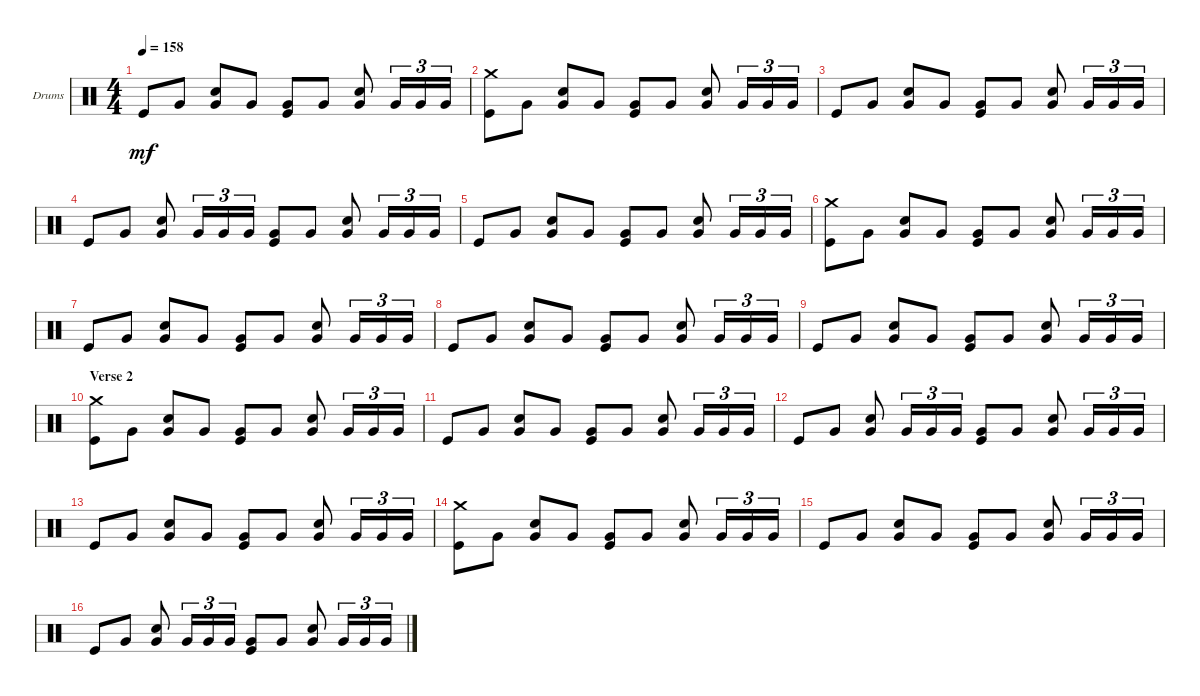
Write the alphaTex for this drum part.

\defaultSystemsLayout 4
\bracketExtendMode groupsimilarinstruments
\firstSystemTrackNameOrientation horizontal
\otherSystemsTrackNameOrientation horizontal
\track ("Drums" "Drums") {instrument percussion}
\staff {score}
\articulation defaults
\ts (4 4)
\tempo 158
\clef neutral
\ks c "Kick (hit)".8{dy mf} "Very Low Tom (hit)".8
("Very Low Tom (hit)" "Snare (hit) 2").8 "Very Low Tom (hit)".8 ("Very Low Tom (hit)" "Kick (hit)").8 "Very Low Tom (hit)".8 ("Very Low Tom (hit)" "Snare (hit) 2").8 "Very Low Tom (hit)".16{tu (3 2)} "Very Low Tom (hit)".16{tu (3 2)} "Very Low Tom (hit)".16{tu (3 2)} |
("Crash medium (hit)" "Kick (hit)").8 "Very Low Tom (hit)".8 ("Very Low Tom (hit)" "Snare (hit) 2").8 "Very Low Tom (hit)".8 ("Very Low Tom (hit)" "Kick (hit)").8 "Very Low Tom (hit)".8 ("Very Low Tom (hit)" "Snare (hit) 2").8 "Very Low Tom (hit)".16{tu (3 2)} "Very Low Tom (hit)".16{tu (3 2)} "Very Low Tom (hit)".16{tu (3 2)} |
"Kick (hit)".8 "Very Low Tom (hit)".8 ("Very Low Tom (hit)" "Snare (hit) 2").8 "Very Low Tom (hit)".8 ("Very Low Tom (hit)" "Kick (hit)").8 "Very Low Tom (hit)".8 ("Very Low Tom (hit)" "Snare (hit) 2").8 "Very Low Tom (hit)".16{tu (3 2)} "Very Low Tom (hit)".16{tu (3 2)} "Very Low Tom (hit)".16{tu (3 2)} |
"Kick (hit)".8 "Very Low Tom (hit)".8 ("Very Low Tom (hit)" "Snare (hit) 2").8 "Very Low Tom (hit)".16{tu (3 2)} "Very Low Tom (hit)".16{tu (3 2)} "Very Low Tom (hit)".16{tu (3 2)} ("Very Low Tom (hit)" "Kick (hit)").8 "Very Low Tom (hit)".8 ("Very Low Tom (hit)" "Snare (hit) 2").8 "Very Low Tom (hit)".16{tu (3 2)} "Very Low Tom (hit)".16{tu (3 2)} "Very Low Tom (hit)".16{tu (3 2)} |
"Kick (hit)".8 "Very Low Tom (hit)".8 ("Very Low Tom (hit)" "Snare (hit) 2").8 "Very Low Tom (hit)".8 ("Very Low Tom (hit)" "Kick (hit)").8 "Very Low Tom (hit)".8 ("Very Low Tom (hit)" "Snare (hit) 2").8 "Very Low Tom (hit)".16{tu (3 2)} "Very Low Tom (hit)".16{tu (3 2)} "Very Low Tom (hit)".16{tu (3 2)} |
("Crash medium (hit)" "Kick (hit)").8 "Very Low Tom (hit)".8 ("Very Low Tom (hit)" "Snare (hit) 2").8 "Very Low Tom (hit)".8 ("Very Low Tom (hit)" "Kick (hit)").8 "Very Low Tom (hit)".8 ("Very Low Tom (hit)" "Snare (hit) 2").8 "Very Low Tom (hit)".16{tu (3 2)} "Very Low Tom (hit)".16{tu (3 2)} "Very Low Tom (hit)".16{tu (3 2)} |
"Kick (hit)".8 "Very Low Tom (hit)".8 ("Very Low Tom (hit)" "Snare (hit) 2").8 "Very Low Tom (hit)".8 ("Very Low Tom (hit)" "Kick (hit)").8 "Very Low Tom (hit)".8 ("Very Low Tom (hit)" "Snare (hit) 2").8 "Very Low Tom (hit)".16{tu (3 2)} "Very Low Tom (hit)".16{tu (3 2)} "Very Low Tom (hit)".16{tu (3 2)} |
"Kick (hit)".8 "Very Low Tom (hit)".8 ("Very Low Tom (hit)" "Snare (hit) 2").8 "Very Low Tom (hit)".8 ("Very Low Tom (hit)" "Kick (hit)").8 "Very Low Tom (hit)".8 ("Very Low Tom (hit)" "Snare (hit) 2").8 "Very Low Tom (hit)".16{tu (3 2)} "Very Low Tom (hit)".16{tu (3 2)} "Very Low Tom (hit)".16{tu (3 2)} |
"Kick (hit)".8 "Very Low Tom (hit)".8 ("Very Low Tom (hit)" "Snare (hit) 2").8 "Very Low Tom (hit)".8 ("Very Low Tom (hit)" "Kick (hit)").8 "Very Low Tom (hit)".8 ("Very Low Tom (hit)" "Snare (hit) 2").8 "Very Low Tom (hit)".16{tu (3 2)} "Very Low Tom (hit)".16{tu (3 2)} "Very Low Tom (hit)".16{tu (3 2)} |
\section ("" "Verse 2")
("Crash medium (hit)" "Kick (hit)").8 "Very Low Tom (hit)".8 ("Very Low Tom (hit)" "Snare (hit) 2").8 "Very Low Tom (hit)".8 ("Very Low Tom (hit)" "Kick (hit)").8 "Very Low Tom (hit)".8 ("Very Low Tom (hit)" "Snare (hit) 2").8 "Very Low Tom (hit)".16{tu (3 2)} "Very Low Tom (hit)".16{tu (3 2)} "Very Low Tom (hit)".16{tu (3 2)} |
"Kick (hit)".8 "Very Low Tom (hit)".8 ("Very Low Tom (hit)" "Snare (hit) 2").8 "Very Low Tom (hit)".8 ("Very Low Tom (hit)" "Kick (hit)").8 "Very Low Tom (hit)".8 ("Very Low Tom (hit)" "Snare (hit) 2").8 "Very Low Tom (hit)".16{tu (3 2)} "Very Low Tom (hit)".16{tu (3 2)} "Very Low Tom (hit)".16{tu (3 2)} |
"Kick (hit)".8 "Very Low Tom (hit)".8 ("Very Low Tom (hit)" "Snare (hit) 2").8 "Very Low Tom (hit)".16{tu (3 2)} "Very Low Tom (hit)".16{tu (3 2)} "Very Low Tom (hit)".16{tu (3 2)} ("Very Low Tom (hit)" "Kick (hit)").8 "Very Low Tom (hit)".8 ("Very Low Tom (hit)" "Snare (hit) 2").8 "Very Low Tom (hit)".16{tu (3 2)} "Very Low Tom (hit)".16{tu (3 2)} "Very Low Tom (hit)".16{tu (3 2)} |
"Kick (hit)".8 "Very Low Tom (hit)".8 ("Very Low Tom (hit)" "Snare (hit) 2").8 "Very Low Tom (hit)".8 ("Very Low Tom (hit)" "Kick (hit)").8 "Very Low Tom (hit)".8 ("Very Low Tom (hit)" "Snare (hit) 2").8 "Very Low Tom (hit)".16{tu (3 2)} "Very Low Tom (hit)".16{tu (3 2)} "Very Low Tom (hit)".16{tu (3 2)} |
("Crash medium (hit)" "Kick (hit)").8 "Very Low Tom (hit)".8 ("Very Low Tom (hit)" "Snare (hit) 2").8 "Very Low Tom (hit)".8 ("Very Low Tom (hit)" "Kick (hit)").8 "Very Low Tom (hit)".8 ("Very Low Tom (hit)" "Snare (hit) 2").8 "Very Low Tom (hit)".16{tu (3 2)} "Very Low Tom (hit)".16{tu (3 2)} "Very Low Tom (hit)".16{tu (3 2)} |
"Kick (hit)".8 "Very Low Tom (hit)".8 ("Very Low Tom (hit)" "Snare (hit) 2").8 "Very Low Tom (hit)".8 ("Very Low Tom (hit)" "Kick (hit)").8 "Very Low Tom (hit)".8 ("Very Low Tom (hit)" "Snare (hit) 2").8 "Very Low Tom (hit)".16{tu (3 2)} "Very Low Tom (hit)".16{tu (3 2)} "Very Low Tom (hit)".16{tu (3 2)} |
"Kick (hit)".8 "Very Low Tom (hit)".8 ("Very Low Tom (hit)" "Snare (hit) 2").8 "Very Low Tom (hit)".16{tu (3 2)} "Very Low Tom (hit)".16{tu (3 2)} "Very Low Tom (hit)".16{tu (3 2)} ("Very Low Tom (hit)" "Kick (hit)").8 "Very Low Tom (hit)".8 ("Very Low Tom (hit)" "Snare (hit) 2").8 "Very Low Tom (hit)".16{tu (3 2)} "Very Low Tom (hit)".16{tu (3 2)} "Very Low Tom (hit)".16{tu (3 2)}
